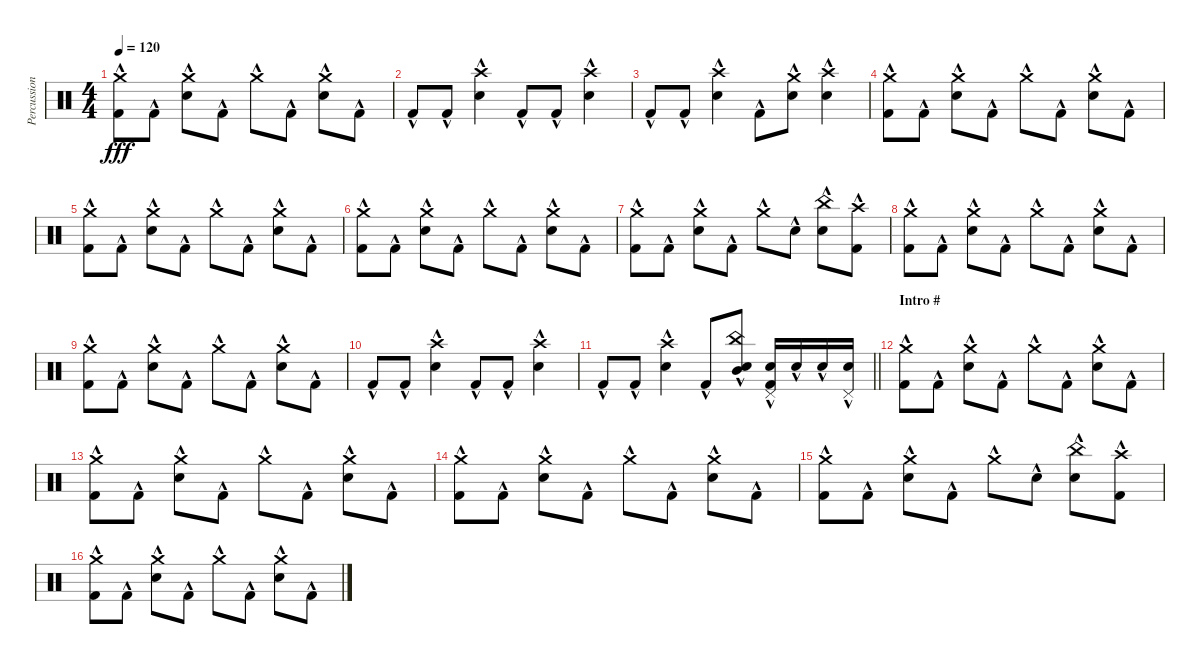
\track ("Percussion" "Percussion") {instrument percussion}
\staff {score}
\articulation defaults
\ts (4 4)
\tempo 120
\clef neutral
\ks c
("Crash medium (hit)"{hac} "Kick (hit) 2"{hac}).8{dy fff} "Kick (hit) 2"{hac}.8 ("Crash medium (hit)"{hac} "Electric Snare (hit)"{hac}).8 "Kick (hit) 2"{hac}.8 "Crash medium (hit)"{hac}.8 "Kick (hit) 2"{hac}.8 ("Crash medium (hit)"{hac} "Electric Snare (hit)"{hac}).8 "Kick (hit) 2"{hac}.8 |
"Kick (hit) 2"{hac}.8 "Kick (hit) 2"{hac}.8 ("Crash high (hit)"{hac} "Electric Snare (hit)"{hac}).4 "Kick (hit) 2"{hac}.8 "Kick (hit) 2"{hac}.8 ("Crash high (hit)"{hac} "Electric Snare (hit)"{hac}).4 |
"Kick (hit) 2"{hac}.8 "Kick (hit) 2"{hac}.8 ("Crash high (hit)"{hac} "Electric Snare (hit)"{hac}).4 "Kick (hit) 2"{hac}.8 ("Crash medium (hit)"{hac} "Electric Snare (hit)"{hac}).8 ("Crash high (hit)"{hac} "Electric Snare (hit)"{hac}).4 |
("Crash medium (hit)"{hac} "Kick (hit) 2"{hac}).8 "Kick (hit) 2"{hac}.8 ("Crash medium (hit)"{hac} "Electric Snare (hit)"{hac}).8 "Kick (hit) 2"{hac}.8 "Crash medium (hit)"{hac}.8 "Kick (hit) 2"{hac}.8 ("Crash medium (hit)"{hac} "Electric Snare (hit)"{hac}).8 "Kick (hit) 2"{hac}.8 |
("Crash medium (hit)"{hac} "Kick (hit) 2"{hac}).8 "Kick (hit) 2"{hac}.8 ("Crash medium (hit)"{hac} "Electric Snare (hit)"{hac}).8 "Kick (hit) 2"{hac}.8 "Crash medium (hit)"{hac}.8 "Kick (hit) 2"{hac}.8 ("Crash medium (hit)"{hac} "Electric Snare (hit)"{hac}).8 "Kick (hit) 2"{hac}.8 |
("Crash medium (hit)"{hac} "Kick (hit) 2"{hac}).8 "Kick (hit) 2"{hac}.8 ("Crash medium (hit)"{hac} "Electric Snare (hit)"{hac}).8 "Kick (hit) 2"{hac}.8 "Crash medium (hit)"{hac}.8 "Kick (hit) 2"{hac}.8 ("Crash medium (hit)"{hac} "Electric Snare (hit)"{hac}).8 "Kick (hit) 2"{hac}.8 |
("Crash medium (hit)"{hac} "Kick (hit) 2"{hac}).8 "Kick (hit) 2"{hac}.8 ("Crash medium (hit)"{hac} "Electric Snare (hit)"{hac}).8 "Kick (hit) 2"{hac}.8 "Crash medium (hit)"{hac}.8 "Electric Snare (hit)"{hac}.8 ("China (hit)"{hac} "Electric Snare (hit)"{hac}).8 ("Crash high (hit)"{hac} "Kick (hit) 2"{hac}).8 |
("Crash medium (hit)"{hac} "Kick (hit) 2"{hac}).8 "Kick (hit) 2"{hac}.8 ("Crash medium (hit)"{hac} "Electric Snare (hit)"{hac}).8 "Kick (hit) 2"{hac}.8 "Crash medium (hit)"{hac}.8 "Kick (hit) 2"{hac}.8 ("Crash medium (hit)"{hac} "Electric Snare (hit)"{hac}).8 "Kick (hit) 2"{hac}.8 |
("Crash medium (hit)"{hac} "Kick (hit) 2"{hac}).8 "Kick (hit) 2"{hac}.8 ("Crash medium (hit)"{hac} "Electric Snare (hit)"{hac}).8 "Kick (hit) 2"{hac}.8 "Crash medium (hit)"{hac}.8 "Kick (hit) 2"{hac}.8 ("Crash medium (hit)"{hac} "Electric Snare (hit)"{hac}).8 "Kick (hit) 2"{hac}.8 |
"Kick (hit) 2"{hac}.8 "Kick (hit) 2"{hac}.8 ("Crash high (hit)"{hac} "Electric Snare (hit)"{hac}).4 "Kick (hit) 2"{hac}.8 "Kick (hit) 2"{hac}.8 ("Crash high (hit)"{hac} "Electric Snare (hit)"{hac}).4 |
\barLineRight lightlight "Kick (hit) 2"{hac}.8 "Kick (hit) 2"{hac}.8
("Crash high (hit)"{hac} "Electric Snare (hit)"{hac}).4 "Kick (hit) 2"{hac}.8 ("China (hit)"{hac} "Electric Snare (hit)"{hac} "Mid Tom (hit)"{hac}).8 ("Pedal Hi-Hat (hit)" "Kick (hit) 2"{hac} "Electric Snare (hit)"{hac}).16 "Electric Snare (hit)"{hac}.16 "Electric Snare (hit)"{hac}.16 ("Pedal Hi-Hat (hit)" "Electric Snare (hit)"{hac}).16 |
\section ("" "Intro #")
("Crash medium (hit)"{hac} "Kick (hit) 2"{hac}).8 "Kick (hit) 2"{hac}.8 ("Crash medium (hit)"{hac} "Electric Snare (hit)"{hac}).8 "Kick (hit) 2"{hac}.8 "Crash medium (hit)"{hac}.8 "Kick (hit) 2"{hac}.8 ("Crash medium (hit)"{hac} "Electric Snare (hit)"{hac}).8 "Kick (hit) 2"{hac}.8 |
("Crash medium (hit)"{hac} "Kick (hit) 2"{hac}).8 "Kick (hit) 2"{hac}.8 ("Crash medium (hit)"{hac} "Electric Snare (hit)"{hac}).8 "Kick (hit) 2"{hac}.8 "Crash medium (hit)"{hac}.8 "Kick (hit) 2"{hac}.8 ("Crash medium (hit)"{hac} "Electric Snare (hit)"{hac}).8 "Kick (hit) 2"{hac}.8 |
("Crash medium (hit)"{hac} "Kick (hit) 2"{hac}).8 "Kick (hit) 2"{hac}.8 ("Crash medium (hit)"{hac} "Electric Snare (hit)"{hac}).8 "Kick (hit) 2"{hac}.8 "Crash medium (hit)"{hac}.8 "Kick (hit) 2"{hac}.8 ("Crash medium (hit)"{hac} "Electric Snare (hit)"{hac}).8 "Kick (hit) 2"{hac}.8 |
("Crash medium (hit)"{hac} "Kick (hit) 2"{hac}).8 "Kick (hit) 2"{hac}.8 ("Crash medium (hit)"{hac} "Electric Snare (hit)"{hac}).8 "Kick (hit) 2"{hac}.8 "Crash medium (hit)"{hac}.8 "Electric Snare (hit)"{hac}.8 ("China (hit)"{hac} "Electric Snare (hit)"{hac}).8 ("Crash high (hit)"{hac} "Kick (hit) 2"{hac}).8 |
("Crash medium (hit)"{hac} "Kick (hit) 2"{hac}).8 "Kick (hit) 2"{hac}.8 ("Crash medium (hit)"{hac} "Electric Snare (hit)"{hac}).8 "Kick (hit) 2"{hac}.8 "Crash medium (hit)"{hac}.8 "Kick (hit) 2"{hac}.8 ("Crash medium (hit)"{hac} "Electric Snare (hit)"{hac}).8 "Kick (hit) 2"{hac}.8
